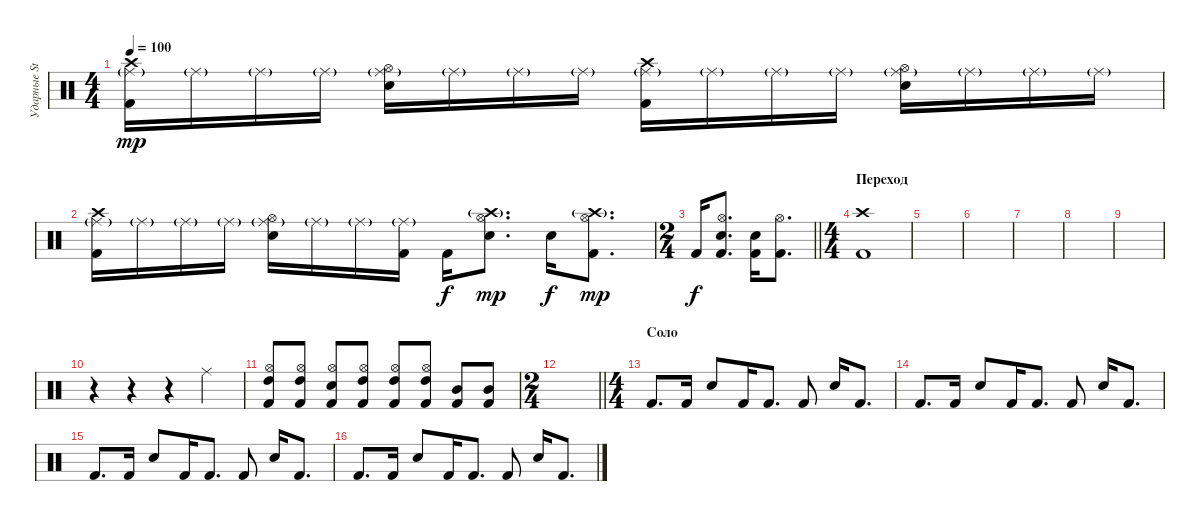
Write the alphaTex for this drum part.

\track ("Ударные Stewart" "Ударные St") {instrument percussion}
\staff {score}
\articulation defaults
\ts (4 4)
\tempo 100
\clef neutral
\ks c
("Crash high (hit)" "Ride (middle)"{g} "Kick (hit) 2").16{dy mp} "Ride (middle)"{g}.16 "Ride (middle)"{g}.16 "Ride (middle)"{g}.16 ("Ride (middle)"{g} "Hi-Hat (open)" "Electric Snare (hit)").16 "Ride (middle)"{g}.16 "Ride (middle)"{g}.16 "Ride (middle)"{g}.16 ("Crash high (hit)" "Ride (middle)"{g} "Kick (hit) 2").16 "Ride (middle)"{g}.16 "Ride (middle)"{g}.16 "Ride (middle)"{g}.16 ("Ride (middle)"{g} "Hi-Hat (open)" "Electric Snare (hit)").16 "Ride (middle)"{g}.16 "Ride (middle)"{g}.16 "Ride (middle)"{g}.16 |
("Crash high (hit)" "Ride (middle)"{g} "Kick (hit) 2").16 "Ride (middle)"{g}.16 "Ride (middle)"{g}.16 "Ride (middle)"{g}.16 ("Ride (middle)"{g} "Hi-Hat (open)" "Electric Snare (hit)").16 "Ride (middle)"{g}.16 "Ride (middle)"{g}.16 ("Ride (middle)"{g} "Kick (hit) 2").16 "Kick (hit) 2".16{dy f} ("Crash high (hit)"{g} "Hi-Hat (open)" "Electric Snare (hit)").8{d dy mp} "Electric Snare (hit)".16{dy f} ("Crash high (hit)"{g} "Hi-Hat (open)" "Kick (hit) 2").8{d dy mp} |
\ts (2 4)
\barLineRight lightlight "Kick (hit) 2".16{dy f}
("Hi-Hat (open)" "Electric Snare (hit)" "Kick (hit) 2").8{d} ("Electric Snare (hit)" "Kick (hit) 2").16 ("Hi-Hat (open)" "Kick (hit) 2").8{d} |
\ts (4 4)
\section ("" "Переход")
("Crash high (hit)" "Kick (hit) 2").1 |
|
|
|
|
|
r.4 r.4 r.4 "Ride (middle)".4 |
("Hi-Hat (open)" "High Tom (hit)" "Kick (hit) 2").8 ("Hi-Hat (open)" "High Tom (hit)" "Kick (hit) 2").8 ("Hi-Hat (open)" "Electric Snare (hit)" "Kick (hit) 2").8 ("Hi-Hat (open)" "High Tom (hit)" "Kick (hit) 2").8 ("Hi-Hat (open)" "High Tom (hit)" "Kick (hit) 2").8 ("Hi-Hat (open)" "High Tom (hit)" "Kick (hit) 2").8 ("Mid Tom (hit)" "Kick (hit) 2").8 ("Mid Tom (hit)" "Kick (hit) 2").8 |
\ts (2 4)
\barLineRight lightlight
|
\ts (4 4)
\section ("" "Соло")
"Kick (hit) 2".8{d} "Kick (hit) 2".16 "Electric Snare (hit)".8 "Kick (hit) 2".16 "Kick (hit) 2".8{d} "Kick (hit) 2".8 "Electric Snare (hit)".16 "Kick (hit) 2".8{d} |
"Kick (hit) 2".8{d} "Kick (hit) 2".16 "Electric Snare (hit)".8 "Kick (hit) 2".16 "Kick (hit) 2".8{d} "Kick (hit) 2".8 "Electric Snare (hit)".16 "Kick (hit) 2".8{d} |
"Kick (hit) 2".8{d} "Kick (hit) 2".16 "Electric Snare (hit)".8 "Kick (hit) 2".16 "Kick (hit) 2".8{d} "Kick (hit) 2".8 "Electric Snare (hit)".16 "Kick (hit) 2".8{d} |
"Kick (hit) 2".8{d} "Kick (hit) 2".16 "Electric Snare (hit)".8 "Kick (hit) 2".16 "Kick (hit) 2".8{d} "Kick (hit) 2".8 "Electric Snare (hit)".16 "Kick (hit) 2".8{d}
